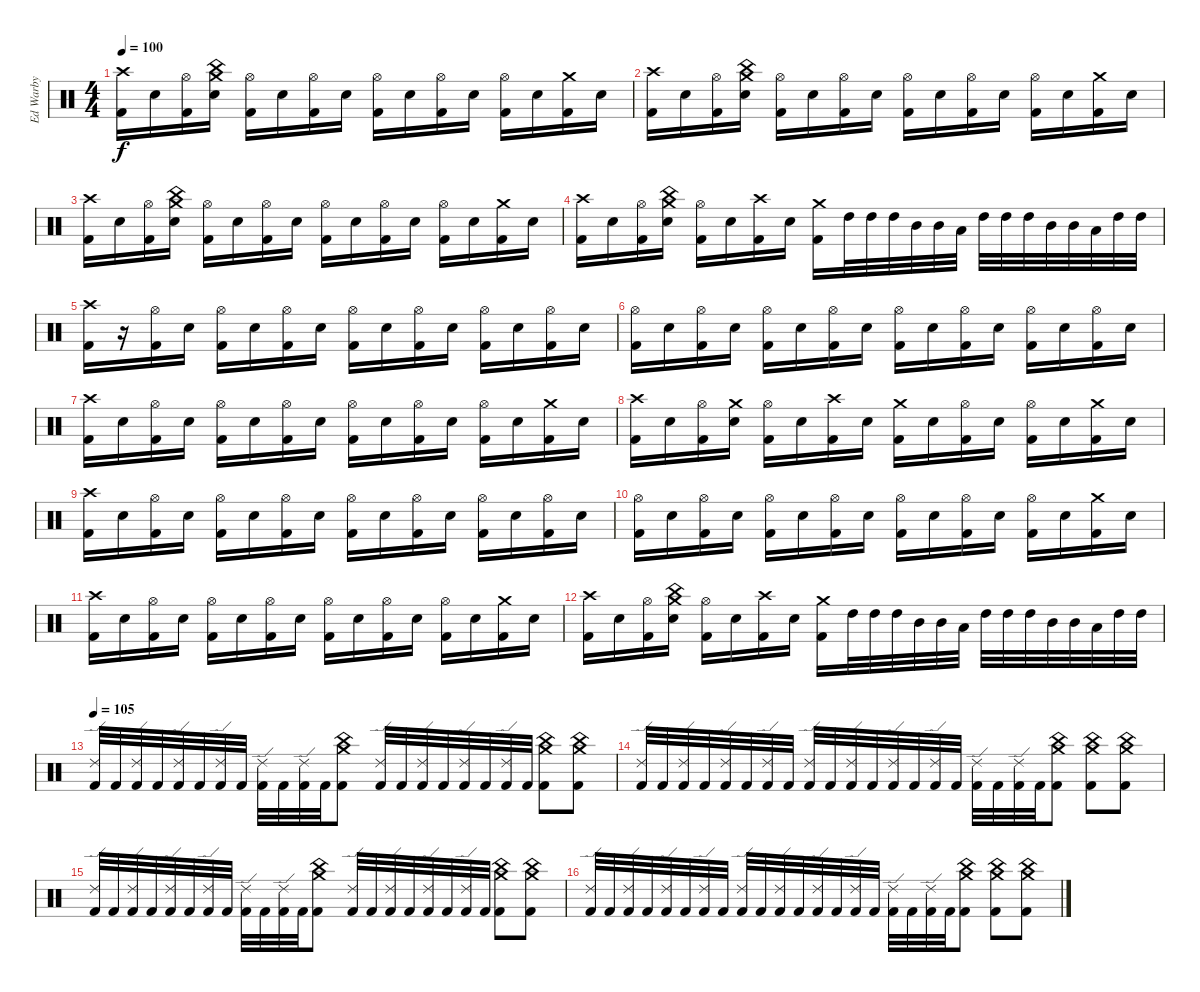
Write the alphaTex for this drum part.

\track ("Ed Warby" "Ed Warby") {instrument percussion}
\staff {score}
\articulation defaults
\ts (4 4)
\tempo 100
\clef neutral
\ks c
("Crash high (hit)" "Kick (hit) 2").16{dy f} "Snare (hit) 2".16 ("Hi-Hat (open)" "Kick (hit) 2").16 ("China (hit)" "Crash medium (hit)" "Snare (hit) 2").16 ("Hi-Hat (open)" "Kick (hit) 2").16 "Snare (hit) 2".16 ("Hi-Hat (open)" "Kick (hit) 2").16 "Snare (hit) 2".16 ("Hi-Hat (open)" "Kick (hit) 2").16 "Snare (hit) 2".16 ("Hi-Hat (open)" "Kick (hit) 2").16 "Snare (hit) 2".16 ("Hi-Hat (open)" "Kick (hit) 2").16 "Snare (hit) 2".16 ("Crash medium (hit)" "Kick (hit) 2").16 "Snare (hit) 2".16 |
("Crash high (hit)" "Kick (hit) 2").16 "Snare (hit) 2".16 ("Hi-Hat (open)" "Kick (hit) 2").16 ("China (hit)" "Crash medium (hit)" "Snare (hit) 2").16 ("Hi-Hat (open)" "Kick (hit) 2").16 "Snare (hit) 2".16 ("Hi-Hat (open)" "Kick (hit) 2").16 "Snare (hit) 2".16 ("Hi-Hat (open)" "Kick (hit) 2").16 "Snare (hit) 2".16 ("Hi-Hat (open)" "Kick (hit) 2").16 "Snare (hit) 2".16 ("Hi-Hat (open)" "Kick (hit) 2").16 "Snare (hit) 2".16 ("Crash medium (hit)" "Kick (hit) 2").16 "Snare (hit) 2".16 |
("Crash high (hit)" "Kick (hit) 2").16 "Snare (hit) 2".16 ("Hi-Hat (open)" "Kick (hit) 2").16 ("China (hit)" "Crash medium (hit)" "Snare (hit) 2").16 ("Hi-Hat (open)" "Kick (hit) 2").16 "Snare (hit) 2".16 ("Hi-Hat (open)" "Kick (hit) 2").16 "Snare (hit) 2".16 ("Hi-Hat (open)" "Kick (hit) 2").16 "Snare (hit) 2".16 ("Hi-Hat (open)" "Kick (hit) 2").16 "Snare (hit) 2".16 ("Hi-Hat (open)" "Kick (hit) 2").16 "Snare (hit) 2".16 ("Crash medium (hit)" "Kick (hit) 2").16 "Snare (hit) 2".16 |
("Crash high (hit)" "Kick (hit) 2").16 "Snare (hit) 2".16 ("Hi-Hat (open)" "Kick (hit) 2").16 ("China (hit)" "Crash medium (hit)" "Snare (hit) 2").16 ("Hi-Hat (open)" "Kick (hit) 2").16 "Snare (hit) 2".16 ("Crash high (hit)" "Kick (hit) 2").16 "Snare (hit) 2".16 ("Crash medium (hit)" "Kick (hit) 2").16 "High Tom (hit)".32 "High Tom (hit)".32 "High Tom (hit)".32 "Mid Tom (hit)".32 "Mid Tom (hit)".32 "Low Tom (hit)".32 "High Tom (hit)".32 "High Tom (hit)".32 "High Tom (hit)".32 "Mid Tom (hit)".32 "Mid Tom (hit)".32 "Low Tom (hit)".32 "High Tom (hit)".32 "High Tom (hit)".32 |
("Crash high (hit)" "Kick (hit) 2").16 r.16 ("Hi-Hat (open)" "Kick (hit) 2").16 "Snare (hit) 2".16 ("Hi-Hat (open)" "Kick (hit) 2").16 "Snare (hit) 2".16 ("Hi-Hat (open)" "Kick (hit) 2").16 "Snare (hit) 2".16 ("Hi-Hat (open)" "Kick (hit) 2").16 "Snare (hit) 2".16 ("Hi-Hat (open)" "Kick (hit) 2").16 "Snare (hit) 2".16 ("Hi-Hat (open)" "Kick (hit) 2").16 "Snare (hit) 2".16 ("Hi-Hat (open)" "Kick (hit) 2").16 "Snare (hit) 2".16 |
("Hi-Hat (open)" "Kick (hit) 2").16 "Snare (hit) 2".16 ("Hi-Hat (open)" "Kick (hit) 2").16 "Snare (hit) 2".16 ("Hi-Hat (open)" "Kick (hit) 2").16 "Snare (hit) 2".16 ("Hi-Hat (open)" "Kick (hit) 2").16 "Snare (hit) 2".16 ("Hi-Hat (open)" "Kick (hit) 2").16 "Snare (hit) 2".16 ("Hi-Hat (open)" "Kick (hit) 2").16 "Snare (hit) 2".16 ("Hi-Hat (open)" "Kick (hit) 2").16 "Snare (hit) 2".16 ("Hi-Hat (open)" "Kick (hit) 2").16 "Snare (hit) 2".16 |
("Crash high (hit)" "Kick (hit) 2").16 "Snare (hit) 2".16 ("Hi-Hat (open)" "Kick (hit) 2").16 "Snare (hit) 2".16 ("Hi-Hat (open)" "Kick (hit) 2").16 "Snare (hit) 2".16 ("Hi-Hat (open)" "Kick (hit) 2").16 "Snare (hit) 2".16 ("Hi-Hat (open)" "Kick (hit) 2").16 "Snare (hit) 2".16 ("Hi-Hat (open)" "Kick (hit) 2").16 "Snare (hit) 2".16 ("Hi-Hat (open)" "Kick (hit) 2").16 "Snare (hit) 2".16 ("Crash medium (hit)" "Kick (hit) 2").16 "Snare (hit) 2".16 |
("Crash high (hit)" "Kick (hit) 2").16 "Snare (hit) 2".16 ("Hi-Hat (open)" "Kick (hit) 2").16 ("Crash medium (hit)" "Snare (hit) 2").16 ("Hi-Hat (open)" "Kick (hit) 2").16 "Snare (hit) 2".16 ("Crash high (hit)" "Kick (hit) 2").16 "Snare (hit) 2".16 ("Crash medium (hit)" "Kick (hit) 2").16 "Snare (hit) 2".16 ("Hi-Hat (open)" "Kick (hit) 2").16 "Snare (hit) 2".16 ("Hi-Hat (open)" "Kick (hit) 2").16 "Snare (hit) 2".16 ("Crash medium (hit)" "Kick (hit) 2").16 "Snare (hit) 2".16 |
("Crash high (hit)" "Kick (hit) 2").16 "Snare (hit) 2".16 ("Hi-Hat (open)" "Kick (hit) 2").16 "Snare (hit) 2".16 ("Hi-Hat (open)" "Kick (hit) 2").16 "Snare (hit) 2".16 ("Hi-Hat (open)" "Kick (hit) 2").16 "Snare (hit) 2".16 ("Hi-Hat (open)" "Kick (hit) 2").16 "Snare (hit) 2".16 ("Hi-Hat (open)" "Kick (hit) 2").16 "Snare (hit) 2".16 ("Hi-Hat (open)" "Kick (hit) 2").16 "Snare (hit) 2".16 ("Hi-Hat (open)" "Kick (hit) 2").16 "Snare (hit) 2".16 |
("Hi-Hat (open)" "Kick (hit) 2").16 "Snare (hit) 2".16 ("Hi-Hat (open)" "Kick (hit) 2").16 "Snare (hit) 2".16 ("Hi-Hat (open)" "Kick (hit) 2").16 "Snare (hit) 2".16 ("Hi-Hat (open)" "Kick (hit) 2").16 "Snare (hit) 2".16 ("Hi-Hat (open)" "Kick (hit) 2").16 "Snare (hit) 2".16 ("Hi-Hat (open)" "Kick (hit) 2").16 "Snare (hit) 2".16 ("Hi-Hat (open)" "Kick (hit) 2").16 "Snare (hit) 2".16 ("Crash medium (hit)" "Kick (hit) 2").16 "Snare (hit) 2".16 |
("Crash high (hit)" "Kick (hit) 2").16 "Snare (hit) 2".16 ("Hi-Hat (open)" "Kick (hit) 2").16 "Snare (hit) 2".16 ("Hi-Hat (open)" "Kick (hit) 2").16 "Snare (hit) 2".16 ("Hi-Hat (open)" "Kick (hit) 2").16 "Snare (hit) 2".16 ("Hi-Hat (open)" "Kick (hit) 2").16 "Snare (hit) 2".16 ("Hi-Hat (open)" "Kick (hit) 2").16 "Snare (hit) 2".16 ("Hi-Hat (open)" "Kick (hit) 2").16 "Snare (hit) 2".16 ("Crash medium (hit)" "Kick (hit) 2").16 "Snare (hit) 2".16 |
("Crash high (hit)" "Kick (hit) 2").16 "Snare (hit) 2".16 ("Hi-Hat (open)" "Kick (hit) 2").16 ("China (hit)" "Crash medium (hit)" "Snare (hit) 2").16 ("Hi-Hat (open)" "Kick (hit) 2").16 "Snare (hit) 2".16 ("Crash high (hit)" "Kick (hit) 2").16 "Snare (hit) 2".16 ("Crash medium (hit)" "Kick (hit) 2").16 "High Tom (hit)".32 "High Tom (hit)".32 "High Tom (hit)".32 "Mid Tom (hit)".32 "Mid Tom (hit)".32 "Low Tom (hit)".32 "High Tom (hit)".32 "High Tom (hit)".32 "High Tom (hit)".32 "Mid Tom (hit)".32 "Mid Tom (hit)".32 "Low Tom (hit)".32 "High Tom (hit)".32 "High Tom (hit)".32 |
\tempo 105
("Ride (edge) 2" "Kick (hit) 2").32 "Kick (hit) 2".32 ("Ride (edge) 2" "Kick (hit) 2").32 "Kick (hit) 2".32 ("Ride (edge) 2" "Kick (hit) 2").32 "Kick (hit) 2".32 ("Ride (edge) 2" "Kick (hit) 2").32 "Kick (hit) 2".32 ("Ride (edge) 2" "Kick (hit) 2").32 "Kick (hit) 2".32 ("Ride (edge) 2" "Kick (hit) 2").32 "Kick (hit) 2".32 ("China (hit)" "Crash medium (hit)" "Kick (hit) 2").8 ("Ride (edge) 2" "Kick (hit) 2").32 "Kick (hit) 2".32 ("Ride (edge) 2" "Kick (hit) 2").32 "Kick (hit) 2".32 ("Ride (edge) 2" "Kick (hit) 2").32 "Kick (hit) 2".32 ("Ride (edge) 2" "Kick (hit) 2").32 "Kick (hit) 2".32 ("China (hit)" "Crash medium (hit)" "Kick (hit) 2").8 ("China (hit)" "Crash medium (hit)" "Kick (hit) 2").8 |
("Ride (edge) 2" "Kick (hit) 2").32 "Kick (hit) 2".32 ("Ride (edge) 2" "Kick (hit) 2").32 "Kick (hit) 2".32 ("Ride (edge) 2" "Kick (hit) 2").32 "Kick (hit) 2".32 ("Ride (edge) 2" "Kick (hit) 2").32 "Kick (hit) 2".32 ("Ride (edge) 2" "Kick (hit) 2").32 "Kick (hit) 2".32 ("Ride (edge) 2" "Kick (hit) 2").32 "Kick (hit) 2".32 ("Ride (edge) 2" "Kick (hit) 2").32 "Kick (hit) 2".32 ("Ride (edge) 2" "Kick (hit) 2").32 "Kick (hit) 2".32 ("Ride (edge) 2" "Kick (hit) 2").32 "Kick (hit) 2".32 ("Ride (edge) 2" "Kick (hit) 2").32 "Kick (hit) 2".32 ("China (hit)" "Crash medium (hit)" "Kick (hit) 2").8 ("China (hit)" "Crash medium (hit)" "Kick (hit) 2").8 ("China (hit)" "Crash medium (hit)" "Kick (hit) 2").8 |
("Ride (edge) 2" "Kick (hit) 2").32 "Kick (hit) 2".32 ("Ride (edge) 2" "Kick (hit) 2").32 "Kick (hit) 2".32 ("Ride (edge) 2" "Kick (hit) 2").32 "Kick (hit) 2".32 ("Ride (edge) 2" "Kick (hit) 2").32 "Kick (hit) 2".32 ("Ride (edge) 2" "Kick (hit) 2").32 "Kick (hit) 2".32 ("Ride (edge) 2" "Kick (hit) 2").32 "Kick (hit) 2".32 ("China (hit)" "Crash medium (hit)" "Kick (hit) 2").8 ("Ride (edge) 2" "Kick (hit) 2").32 "Kick (hit) 2".32 ("Ride (edge) 2" "Kick (hit) 2").32 "Kick (hit) 2".32 ("Ride (edge) 2" "Kick (hit) 2").32 "Kick (hit) 2".32 ("Ride (edge) 2" "Kick (hit) 2").32 "Kick (hit) 2".32 ("China (hit)" "Crash medium (hit)" "Kick (hit) 2").8 ("China (hit)" "Crash medium (hit)" "Kick (hit) 2").8 |
("Ride (edge) 2" "Kick (hit) 2").32 "Kick (hit) 2".32 ("Ride (edge) 2" "Kick (hit) 2").32 "Kick (hit) 2".32 ("Ride (edge) 2" "Kick (hit) 2").32 "Kick (hit) 2".32 ("Ride (edge) 2" "Kick (hit) 2").32 "Kick (hit) 2".32 ("Ride (edge) 2" "Kick (hit) 2").32 "Kick (hit) 2".32 ("Ride (edge) 2" "Kick (hit) 2").32 "Kick (hit) 2".32 ("Ride (edge) 2" "Kick (hit) 2").32 "Kick (hit) 2".32 ("Ride (edge) 2" "Kick (hit) 2").32 "Kick (hit) 2".32 ("Ride (edge) 2" "Kick (hit) 2").32 "Kick (hit) 2".32 ("Ride (edge) 2" "Kick (hit) 2").32 "Kick (hit) 2".32 ("China (hit)" "Crash medium (hit)" "Kick (hit) 2").8 ("China (hit)" "Crash medium (hit)" "Kick (hit) 2").8 ("China (hit)" "Crash medium (hit)" "Kick (hit) 2").8
